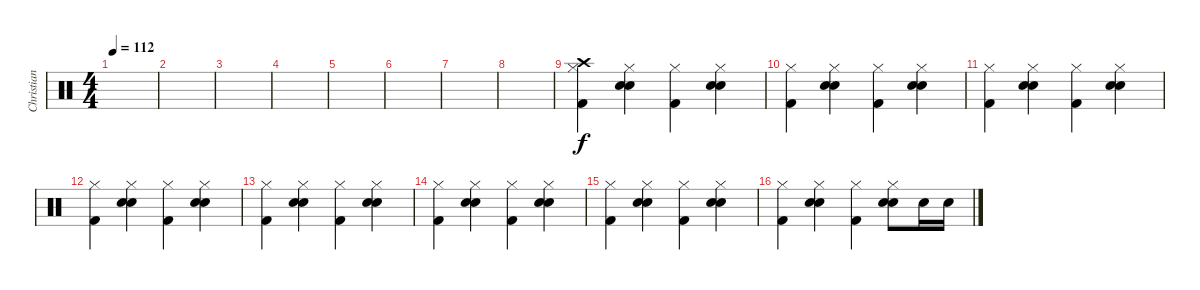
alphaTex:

\track ("Christian Paredes" "Christian ") {instrument percussion}
\staff {score}
\articulation defaults
\ts (4 4)
\tempo 112
\clef neutral
\ks c
|
|
|
|
|
|
|
|
("Hi-Hat (closed)" "Crash high (hit)" "Kick (hit) 2").4 ("Hi-Hat (closed)" "Electric Snare (hit)" "Hand Clap (hit)").4 ("Hi-Hat (closed)" "Kick (hit) 2").4 ("Hi-Hat (closed)" "Electric Snare (hit)" "Hand Clap (hit)").4 |
("Hi-Hat (closed)" "Kick (hit) 2").4 ("Hi-Hat (closed)" "Electric Snare (hit)" "Hand Clap (hit)").4 ("Hi-Hat (closed)" "Kick (hit) 2").4 ("Hi-Hat (closed)" "Electric Snare (hit)" "Hand Clap (hit)").4 |
("Hi-Hat (closed)" "Kick (hit) 2").4 ("Hi-Hat (closed)" "Electric Snare (hit)" "Hand Clap (hit)").4 ("Hi-Hat (closed)" "Kick (hit) 2").4 ("Hi-Hat (closed)" "Electric Snare (hit)" "Hand Clap (hit)").4 |
("Hi-Hat (closed)" "Kick (hit) 2").4 ("Hi-Hat (closed)" "Electric Snare (hit)" "Hand Clap (hit)").4 ("Hi-Hat (closed)" "Kick (hit) 2").4 ("Hi-Hat (closed)" "Electric Snare (hit)" "Hand Clap (hit)").4 |
("Hi-Hat (closed)" "Kick (hit) 2").4 ("Hi-Hat (closed)" "Electric Snare (hit)" "Hand Clap (hit)").4 ("Hi-Hat (closed)" "Kick (hit) 2").4 ("Hi-Hat (closed)" "Electric Snare (hit)" "Hand Clap (hit)").4 |
("Hi-Hat (closed)" "Kick (hit) 2").4 ("Hi-Hat (closed)" "Electric Snare (hit)" "Hand Clap (hit)").4 ("Hi-Hat (closed)" "Kick (hit) 2").4 ("Hi-Hat (closed)" "Electric Snare (hit)" "Hand Clap (hit)").4 |
("Hi-Hat (closed)" "Kick (hit) 2").4 ("Hi-Hat (closed)" "Electric Snare (hit)" "Hand Clap (hit)").4 ("Hi-Hat (closed)" "Kick (hit) 2").4 ("Hi-Hat (closed)" "Electric Snare (hit)" "Hand Clap (hit)").4 |
("Hi-Hat (closed)" "Kick (hit) 2").4 ("Hi-Hat (closed)" "Electric Snare (hit)" "Hand Clap (hit)").4 ("Hi-Hat (closed)" "Kick (hit) 2").4 ("Hi-Hat (closed)" "Electric Snare (hit)" "Hand Clap (hit)").8 "Electric Snare (hit)".16 "Electric Snare (hit)".16
